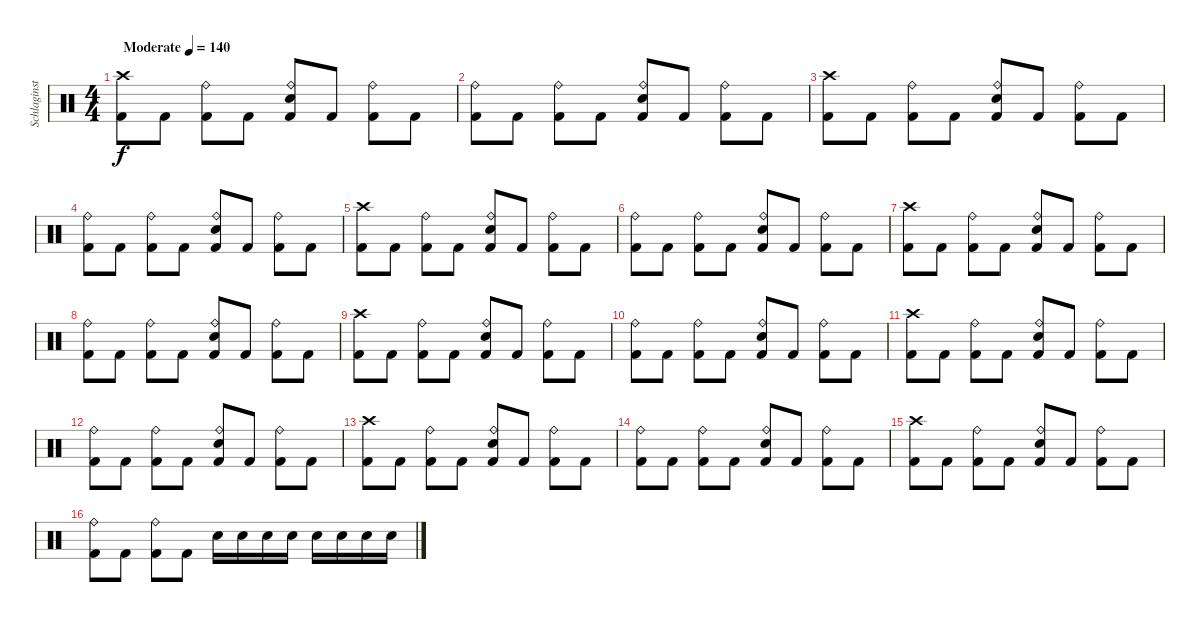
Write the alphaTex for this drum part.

\track ("Schlaginstrumente - Auswahl" "Schlaginst") {instrument percussion}
\staff {score}
\articulation defaults
\ts (4 4)
\tempo (140 "Moderate")
\clef neutral
\ks c
("Crash high (hit)" "Kick (hit) 2").8{dy f} "Kick (hit) 2".8 ("Ride (bell)" "Kick (hit) 2").8 "Kick (hit) 2".8 ("Ride (bell)" "Electric Snare (hit)" "Kick (hit) 2").8 "Kick (hit) 2".8 ("Ride (bell)" "Kick (hit) 2").8 "Kick (hit) 2".8 |
("Ride (bell)" "Kick (hit) 2").8 "Kick (hit) 2".8 ("Ride (bell)" "Kick (hit) 2").8 "Kick (hit) 2".8 ("Ride (bell)" "Electric Snare (hit)" "Kick (hit) 2").8 "Kick (hit) 2".8 ("Ride (bell)" "Kick (hit) 2").8 "Kick (hit) 2".8 |
("Crash high (hit)" "Kick (hit) 2").8 "Kick (hit) 2".8 ("Ride (bell)" "Kick (hit) 2").8 "Kick (hit) 2".8 ("Ride (bell)" "Electric Snare (hit)" "Kick (hit) 2").8 "Kick (hit) 2".8 ("Ride (bell)" "Kick (hit) 2").8 "Kick (hit) 2".8 |
("Ride (bell)" "Kick (hit) 2").8 "Kick (hit) 2".8 ("Ride (bell)" "Kick (hit) 2").8 "Kick (hit) 2".8 ("Ride (bell)" "Electric Snare (hit)" "Kick (hit) 2").8 "Kick (hit) 2".8 ("Ride (bell)" "Kick (hit) 2").8 "Kick (hit) 2".8 |
("Crash high (hit)" "Kick (hit) 2").8 "Kick (hit) 2".8 ("Ride (bell)" "Kick (hit) 2").8 "Kick (hit) 2".8 ("Ride (bell)" "Electric Snare (hit)" "Kick (hit) 2").8 "Kick (hit) 2".8 ("Ride (bell)" "Kick (hit) 2").8 "Kick (hit) 2".8 |
("Ride (bell)" "Kick (hit) 2").8 "Kick (hit) 2".8 ("Ride (bell)" "Kick (hit) 2").8 "Kick (hit) 2".8 ("Ride (bell)" "Electric Snare (hit)" "Kick (hit) 2").8 "Kick (hit) 2".8 ("Ride (bell)" "Kick (hit) 2").8 "Kick (hit) 2".8 |
("Crash high (hit)" "Kick (hit) 2").8 "Kick (hit) 2".8 ("Ride (bell)" "Kick (hit) 2").8 "Kick (hit) 2".8 ("Ride (bell)" "Electric Snare (hit)" "Kick (hit) 2").8 "Kick (hit) 2".8 ("Ride (bell)" "Kick (hit) 2").8 "Kick (hit) 2".8 |
("Ride (bell)" "Kick (hit) 2").8 "Kick (hit) 2".8 ("Ride (bell)" "Kick (hit) 2").8 "Kick (hit) 2".8 ("Ride (bell)" "Electric Snare (hit)" "Kick (hit) 2").8 "Kick (hit) 2".8 ("Ride (bell)" "Kick (hit) 2").8 "Kick (hit) 2".8 |
("Crash high (hit)" "Kick (hit) 2").8 "Kick (hit) 2".8 ("Ride (bell)" "Kick (hit) 2").8 "Kick (hit) 2".8 ("Ride (bell)" "Electric Snare (hit)" "Kick (hit) 2").8 "Kick (hit) 2".8 ("Ride (bell)" "Kick (hit) 2").8 "Kick (hit) 2".8 |
("Ride (bell)" "Kick (hit) 2").8 "Kick (hit) 2".8 ("Ride (bell)" "Kick (hit) 2").8 "Kick (hit) 2".8 ("Ride (bell)" "Electric Snare (hit)" "Kick (hit) 2").8 "Kick (hit) 2".8 ("Ride (bell)" "Kick (hit) 2").8 "Kick (hit) 2".8 |
("Crash high (hit)" "Kick (hit) 2").8 "Kick (hit) 2".8 ("Ride (bell)" "Kick (hit) 2").8 "Kick (hit) 2".8 ("Ride (bell)" "Electric Snare (hit)" "Kick (hit) 2").8 "Kick (hit) 2".8 ("Ride (bell)" "Kick (hit) 2").8 "Kick (hit) 2".8 |
("Ride (bell)" "Kick (hit) 2").8 "Kick (hit) 2".8 ("Ride (bell)" "Kick (hit) 2").8 "Kick (hit) 2".8 ("Ride (bell)" "Electric Snare (hit)" "Kick (hit) 2").8 "Kick (hit) 2".8 ("Ride (bell)" "Kick (hit) 2").8 "Kick (hit) 2".8 |
("Crash high (hit)" "Kick (hit) 2").8 "Kick (hit) 2".8 ("Ride (bell)" "Kick (hit) 2").8 "Kick (hit) 2".8 ("Ride (bell)" "Electric Snare (hit)" "Kick (hit) 2").8 "Kick (hit) 2".8 ("Ride (bell)" "Kick (hit) 2").8 "Kick (hit) 2".8 |
("Ride (bell)" "Kick (hit) 2").8 "Kick (hit) 2".8 ("Ride (bell)" "Kick (hit) 2").8 "Kick (hit) 2".8 ("Ride (bell)" "Electric Snare (hit)" "Kick (hit) 2").8 "Kick (hit) 2".8 ("Ride (bell)" "Kick (hit) 2").8 "Kick (hit) 2".8 |
("Crash high (hit)" "Kick (hit) 2").8 "Kick (hit) 2".8 ("Ride (bell)" "Kick (hit) 2").8 "Kick (hit) 2".8 ("Ride (bell)" "Electric Snare (hit)" "Kick (hit) 2").8 "Kick (hit) 2".8 ("Ride (bell)" "Kick (hit) 2").8 "Kick (hit) 2".8 |
("Ride (bell)" "Kick (hit) 2").8 "Kick (hit) 2".8 ("Ride (bell)" "Kick (hit) 2").8 "Kick (hit) 2".8 "Electric Snare (hit)".16 "Electric Snare (hit)".16 "Electric Snare (hit)".16 "Electric Snare (hit)".16 "Electric Snare (hit)".16 "Electric Snare (hit)".16 "Electric Snare (hit)".16 "Electric Snare (hit)".16
